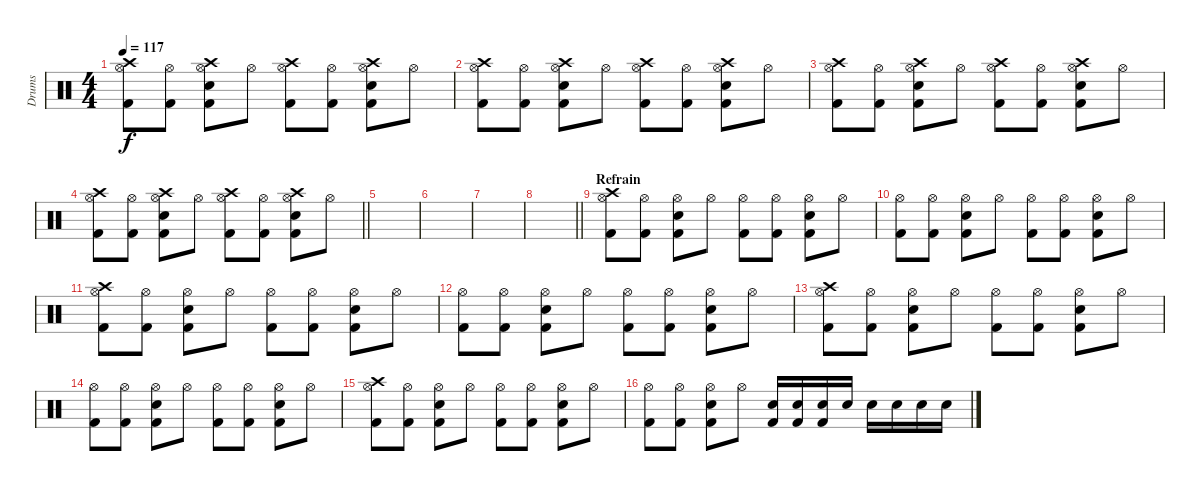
\track ("Drums" "Drums") {instrument percussion}
\staff {score}
\articulation defaults
\ts (4 4)
\tempo 117
\clef neutral
\ks c
("Kick (hit) 2" "Hi-Hat (open)" "Crash high (hit)").8{dy f} ("Kick (hit) 2" "Hi-Hat (open)").8 ("Kick (hit) 2" "Hi-Hat (open)" "Snare (hit) 2" "Crash high (hit)").8 "Hi-Hat (open)".8 ("Kick (hit) 2" "Hi-Hat (open)" "Crash high (hit)").8 ("Kick (hit) 2" "Hi-Hat (open)").8 ("Kick (hit) 2" "Hi-Hat (open)" "Snare (hit) 2" "Crash high (hit)").8 "Hi-Hat (open)".8 |
("Kick (hit) 2" "Hi-Hat (open)" "Crash high (hit)").8 ("Kick (hit) 2" "Hi-Hat (open)").8 ("Kick (hit) 2" "Hi-Hat (open)" "Snare (hit) 2" "Crash high (hit)").8 "Hi-Hat (open)".8 ("Kick (hit) 2" "Hi-Hat (open)" "Crash high (hit)").8 ("Kick (hit) 2" "Hi-Hat (open)").8 ("Kick (hit) 2" "Hi-Hat (open)" "Snare (hit) 2" "Crash high (hit)").8 "Hi-Hat (open)".8 |
("Kick (hit) 2" "Hi-Hat (open)" "Crash high (hit)").8 ("Kick (hit) 2" "Hi-Hat (open)").8 ("Kick (hit) 2" "Hi-Hat (open)" "Snare (hit) 2" "Crash high (hit)").8 "Hi-Hat (open)".8 ("Kick (hit) 2" "Hi-Hat (open)" "Crash high (hit)").8 ("Kick (hit) 2" "Hi-Hat (open)").8 ("Kick (hit) 2" "Hi-Hat (open)" "Snare (hit) 2" "Crash high (hit)").8 "Hi-Hat (open)".8 |
\barLineRight lightlight
("Kick (hit) 2" "Hi-Hat (open)" "Crash high (hit)").8 ("Kick (hit) 2" "Hi-Hat (open)").8 ("Kick (hit) 2" "Hi-Hat (open)" "Snare (hit) 2" "Crash high (hit)").8 "Hi-Hat (open)".8 ("Kick (hit) 2" "Hi-Hat (open)" "Crash high (hit)").8 ("Kick (hit) 2" "Hi-Hat (open)").8 ("Kick (hit) 2" "Hi-Hat (open)" "Snare (hit) 2" "Crash high (hit)").8 "Hi-Hat (open)".8 |
|
|
|
\barLineRight lightlight
|
\section ("" "Refrain")
("Kick (hit) 2" "Hi-Hat (open)" "Crash high (hit)").8 ("Kick (hit) 2" "Hi-Hat (open)").8 ("Kick (hit) 2" "Hi-Hat (open)" "Snare (hit) 2").8 "Hi-Hat (open)".8 ("Kick (hit) 2" "Hi-Hat (open)").8 ("Kick (hit) 2" "Hi-Hat (open)").8 ("Kick (hit) 2" "Hi-Hat (open)" "Snare (hit) 2").8 "Hi-Hat (open)".8 |
("Kick (hit) 2" "Hi-Hat (open)").8 ("Kick (hit) 2" "Hi-Hat (open)").8 ("Kick (hit) 2" "Hi-Hat (open)" "Snare (hit) 2").8 "Hi-Hat (open)".8 ("Kick (hit) 2" "Hi-Hat (open)").8 ("Kick (hit) 2" "Hi-Hat (open)").8 ("Kick (hit) 2" "Hi-Hat (open)" "Snare (hit) 2").8 "Hi-Hat (open)".8 |
("Kick (hit) 2" "Hi-Hat (open)" "Crash high (hit)").8 ("Kick (hit) 2" "Hi-Hat (open)").8 ("Kick (hit) 2" "Hi-Hat (open)" "Snare (hit) 2").8 "Hi-Hat (open)".8 ("Kick (hit) 2" "Hi-Hat (open)").8 ("Kick (hit) 2" "Hi-Hat (open)").8 ("Kick (hit) 2" "Hi-Hat (open)" "Snare (hit) 2").8 "Hi-Hat (open)".8 |
("Kick (hit) 2" "Hi-Hat (open)").8 ("Kick (hit) 2" "Hi-Hat (open)").8 ("Kick (hit) 2" "Hi-Hat (open)" "Snare (hit) 2").8 "Hi-Hat (open)".8 ("Kick (hit) 2" "Hi-Hat (open)").8 ("Kick (hit) 2" "Hi-Hat (open)").8 ("Kick (hit) 2" "Hi-Hat (open)" "Snare (hit) 2").8 "Hi-Hat (open)".8 |
("Kick (hit) 2" "Hi-Hat (open)" "Crash high (hit)").8 ("Kick (hit) 2" "Hi-Hat (open)").8 ("Kick (hit) 2" "Hi-Hat (open)" "Snare (hit) 2").8 "Hi-Hat (open)".8 ("Kick (hit) 2" "Hi-Hat (open)").8 ("Kick (hit) 2" "Hi-Hat (open)").8 ("Kick (hit) 2" "Hi-Hat (open)" "Snare (hit) 2").8 "Hi-Hat (open)".8 |
("Kick (hit) 2" "Hi-Hat (open)").8 ("Kick (hit) 2" "Hi-Hat (open)").8 ("Kick (hit) 2" "Hi-Hat (open)" "Snare (hit) 2").8 "Hi-Hat (open)".8 ("Kick (hit) 2" "Hi-Hat (open)").8 ("Kick (hit) 2" "Hi-Hat (open)").8 ("Kick (hit) 2" "Hi-Hat (open)" "Snare (hit) 2").8 "Hi-Hat (open)".8 |
("Kick (hit) 2" "Hi-Hat (open)" "Crash high (hit)").8 ("Kick (hit) 2" "Hi-Hat (open)").8 ("Kick (hit) 2" "Hi-Hat (open)" "Snare (hit) 2").8 "Hi-Hat (open)".8 ("Kick (hit) 2" "Hi-Hat (open)").8 ("Kick (hit) 2" "Hi-Hat (open)").8 ("Kick (hit) 2" "Hi-Hat (open)" "Snare (hit) 2").8 "Hi-Hat (open)".8 |
("Kick (hit) 2" "Hi-Hat (open)").8 ("Kick (hit) 2" "Hi-Hat (open)").8 ("Kick (hit) 2" "Hi-Hat (open)" "Snare (hit) 2").8 "Hi-Hat (open)".8 ("Kick (hit) 2" "Snare (hit) 2").16 ("Kick (hit) 2" "Snare (hit) 2").16 ("Kick (hit) 2" "Snare (hit) 2").16 "Snare (hit) 2".16 "Snare (hit) 2".16 "Snare (hit) 2".16 "Snare (hit) 2".16 "Snare (hit) 2".16
